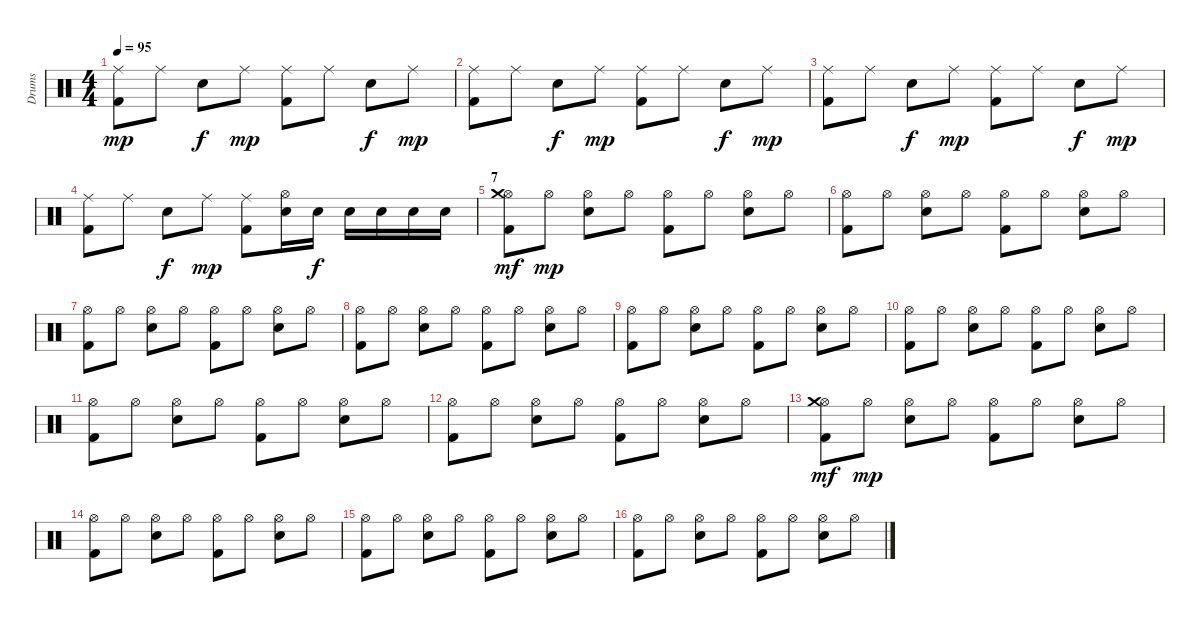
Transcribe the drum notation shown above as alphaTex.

\track ("Drums" "Drums") {instrument percussion}
\staff {score}
\articulation defaults
\ts (4 4)
\tempo 95
\clef neutral
\ks c
("Kick (hit) 2" "Ride (middle)").8{dy mp} "Ride (middle)".8 "Electric Snare (hit)".8{dy f} "Ride (middle)".8{dy mp} ("Kick (hit) 2" "Ride (middle)").8 "Ride (middle)".8 "Electric Snare (hit)".8{dy f} "Ride (middle)".8{dy mp} |
("Kick (hit) 2" "Ride (middle)").8 "Ride (middle)".8 "Electric Snare (hit)".8{dy f} "Ride (middle)".8{dy mp} ("Kick (hit) 2" "Ride (middle)").8 "Ride (middle)".8 "Electric Snare (hit)".8{dy f} "Ride (middle)".8{dy mp} |
("Kick (hit) 2" "Ride (middle)").8 "Ride (middle)".8 "Electric Snare (hit)".8{dy f} "Ride (middle)".8{dy mp} ("Kick (hit) 2" "Ride (middle)").8 "Ride (middle)".8 "Electric Snare (hit)".8{dy f} "Ride (middle)".8{dy mp} |
("Kick (hit) 2" "Ride (middle)").8 "Ride (middle)".8 "Electric Snare (hit)".8{dy f} "Ride (middle)".8{dy mp} ("Kick (hit) 2" "Ride (middle)").8 ("Electric Snare (hit)" "Hi-Hat (open)").16 "Electric Snare (hit)".16{dy f} "Electric Snare (hit)".16 "Electric Snare (hit)".16 "Electric Snare (hit)".16 "Electric Snare (hit)".16 |
\section ("" "7")
("Kick (hit) 2" "Hi-Hat (open)" "Crash medium (hit)").8{dy mf} "Hi-Hat (open)".8{dy mp} ("Electric Snare (hit)" "Hi-Hat (open)").8 "Hi-Hat (open)".8 ("Kick (hit) 2" "Hi-Hat (open)").8 "Hi-Hat (open)".8 ("Electric Snare (hit)" "Hi-Hat (open)").8 "Hi-Hat (open)".8 |
("Kick (hit) 2" "Hi-Hat (open)").8 "Hi-Hat (open)".8 ("Electric Snare (hit)" "Hi-Hat (open)").8 "Hi-Hat (open)".8 ("Kick (hit) 2" "Hi-Hat (open)").8 "Hi-Hat (open)".8 ("Electric Snare (hit)" "Hi-Hat (open)").8 "Hi-Hat (open)".8 |
("Kick (hit) 2" "Hi-Hat (open)").8 "Hi-Hat (open)".8 ("Electric Snare (hit)" "Hi-Hat (open)").8 "Hi-Hat (open)".8 ("Kick (hit) 2" "Hi-Hat (open)").8 "Hi-Hat (open)".8 ("Electric Snare (hit)" "Hi-Hat (open)").8 "Hi-Hat (open)".8 |
("Kick (hit) 2" "Hi-Hat (open)").8 "Hi-Hat (open)".8 ("Electric Snare (hit)" "Hi-Hat (open)").8 "Hi-Hat (open)".8 ("Kick (hit) 2" "Hi-Hat (open)").8 "Hi-Hat (open)".8 ("Electric Snare (hit)" "Hi-Hat (open)").8 "Hi-Hat (open)".8 |
("Kick (hit) 2" "Hi-Hat (open)").8 "Hi-Hat (open)".8 ("Electric Snare (hit)" "Hi-Hat (open)").8 "Hi-Hat (open)".8 ("Kick (hit) 2" "Hi-Hat (open)").8 "Hi-Hat (open)".8 ("Electric Snare (hit)" "Hi-Hat (open)").8 "Hi-Hat (open)".8 |
("Kick (hit) 2" "Hi-Hat (open)").8 "Hi-Hat (open)".8 ("Electric Snare (hit)" "Hi-Hat (open)").8 "Hi-Hat (open)".8 ("Kick (hit) 2" "Hi-Hat (open)").8 "Hi-Hat (open)".8 ("Electric Snare (hit)" "Hi-Hat (open)").8 "Hi-Hat (open)".8 |
("Kick (hit) 2" "Hi-Hat (open)").8 "Hi-Hat (open)".8 ("Electric Snare (hit)" "Hi-Hat (open)").8 "Hi-Hat (open)".8 ("Kick (hit) 2" "Hi-Hat (open)").8 "Hi-Hat (open)".8 ("Electric Snare (hit)" "Hi-Hat (open)").8 "Hi-Hat (open)".8 |
("Kick (hit) 2" "Hi-Hat (open)").8 "Hi-Hat (open)".8 ("Electric Snare (hit)" "Hi-Hat (open)").8 "Hi-Hat (open)".8 ("Kick (hit) 2" "Hi-Hat (open)").8 "Hi-Hat (open)".8 ("Electric Snare (hit)" "Hi-Hat (open)").8 "Hi-Hat (open)".8 |
("Kick (hit) 2" "Hi-Hat (open)" "Crash medium (hit)").8{dy mf} "Hi-Hat (open)".8{dy mp} ("Electric Snare (hit)" "Hi-Hat (open)").8 "Hi-Hat (open)".8 ("Kick (hit) 2" "Hi-Hat (open)").8 "Hi-Hat (open)".8 ("Electric Snare (hit)" "Hi-Hat (open)").8 "Hi-Hat (open)".8 |
("Kick (hit) 2" "Hi-Hat (open)").8 "Hi-Hat (open)".8 ("Electric Snare (hit)" "Hi-Hat (open)").8 "Hi-Hat (open)".8 ("Kick (hit) 2" "Hi-Hat (open)").8 "Hi-Hat (open)".8 ("Electric Snare (hit)" "Hi-Hat (open)").8 "Hi-Hat (open)".8 |
("Kick (hit) 2" "Hi-Hat (open)").8 "Hi-Hat (open)".8 ("Electric Snare (hit)" "Hi-Hat (open)").8 "Hi-Hat (open)".8 ("Kick (hit) 2" "Hi-Hat (open)").8 "Hi-Hat (open)".8 ("Electric Snare (hit)" "Hi-Hat (open)").8 "Hi-Hat (open)".8 |
("Kick (hit) 2" "Hi-Hat (open)").8 "Hi-Hat (open)".8 ("Electric Snare (hit)" "Hi-Hat (open)").8 "Hi-Hat (open)".8 ("Kick (hit) 2" "Hi-Hat (open)").8 "Hi-Hat (open)".8 ("Electric Snare (hit)" "Hi-Hat (open)").8 "Hi-Hat (open)".8
